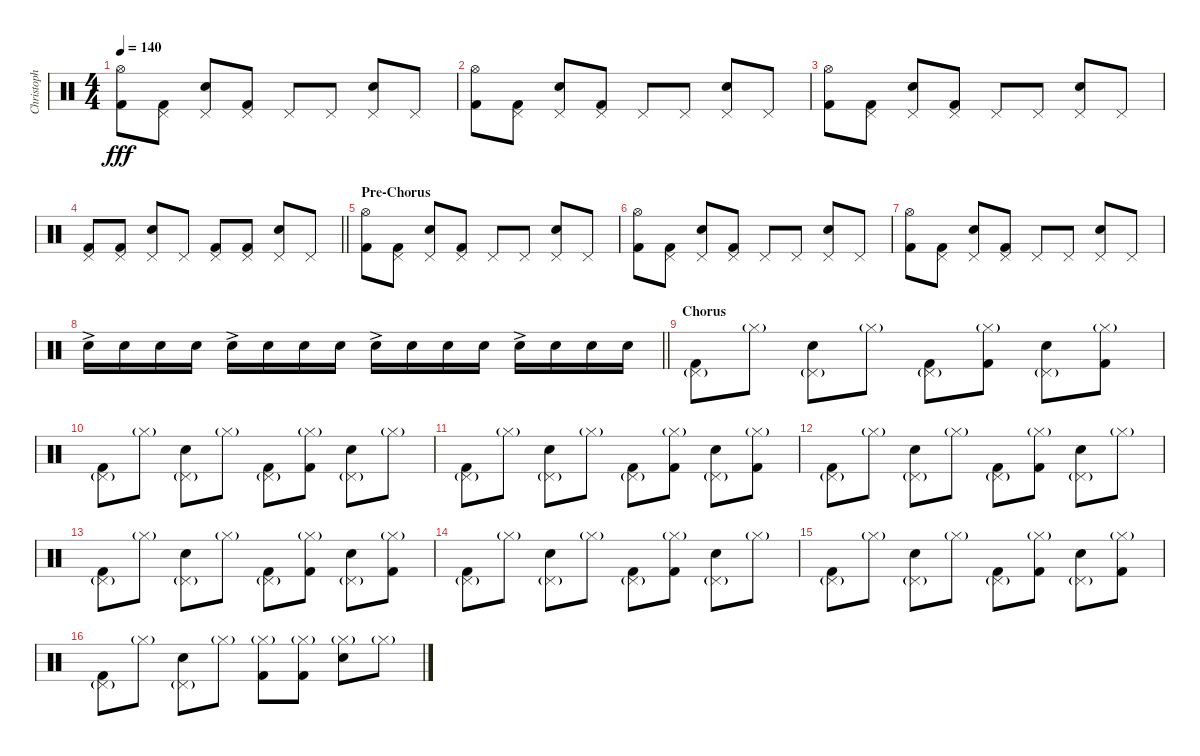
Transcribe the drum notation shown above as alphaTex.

\track ("Christoph" "Christoph") {instrument percussion}
\staff {score}
\articulation defaults
\ts (4 4)
\tempo 140
\clef neutral
\ks c
("Hi-Hat (open)" "Kick (hit) 2").8{dy fff} ("Pedal Hi-Hat (hit)" "Kick (hit) 2").8 ("Pedal Hi-Hat (hit)" "Electric Snare (hit)").8 ("Pedal Hi-Hat (hit)" "Kick (hit) 2").8 "Pedal Hi-Hat (hit)".8 "Pedal Hi-Hat (hit)".8 ("Pedal Hi-Hat (hit)" "Electric Snare (hit)").8 "Pedal Hi-Hat (hit)".8 |
("Hi-Hat (open)" "Kick (hit) 2").8 ("Pedal Hi-Hat (hit)" "Kick (hit) 2").8 ("Pedal Hi-Hat (hit)" "Electric Snare (hit)").8 ("Pedal Hi-Hat (hit)" "Kick (hit) 2").8 "Pedal Hi-Hat (hit)".8 "Pedal Hi-Hat (hit)".8 ("Pedal Hi-Hat (hit)" "Electric Snare (hit)").8 "Pedal Hi-Hat (hit)".8 |
("Hi-Hat (open)" "Kick (hit) 2").8 ("Pedal Hi-Hat (hit)" "Kick (hit) 2").8 ("Pedal Hi-Hat (hit)" "Electric Snare (hit)").8 ("Pedal Hi-Hat (hit)" "Kick (hit) 2").8 "Pedal Hi-Hat (hit)".8 "Pedal Hi-Hat (hit)".8 ("Pedal Hi-Hat (hit)" "Electric Snare (hit)").8 "Pedal Hi-Hat (hit)".8 |
\barLineRight lightlight
("Pedal Hi-Hat (hit)" "Kick (hit) 2").8 ("Pedal Hi-Hat (hit)" "Kick (hit) 2").8 ("Pedal Hi-Hat (hit)" "Electric Snare (hit)").8 "Pedal Hi-Hat (hit)".8 ("Pedal Hi-Hat (hit)" "Kick (hit) 2").8 ("Pedal Hi-Hat (hit)" "Kick (hit) 2").8 ("Pedal Hi-Hat (hit)" "Electric Snare (hit)").8 "Pedal Hi-Hat (hit)".8 |
\section ("" "Pre-Chorus")
("Hi-Hat (open)" "Kick (hit) 2").8 ("Pedal Hi-Hat (hit)" "Kick (hit) 2").8 ("Pedal Hi-Hat (hit)" "Electric Snare (hit)").8 ("Pedal Hi-Hat (hit)" "Kick (hit) 2").8 "Pedal Hi-Hat (hit)".8 "Pedal Hi-Hat (hit)".8 ("Pedal Hi-Hat (hit)" "Electric Snare (hit)").8 "Pedal Hi-Hat (hit)".8 |
("Hi-Hat (open)" "Kick (hit) 2").8 ("Pedal Hi-Hat (hit)" "Kick (hit) 2").8 ("Pedal Hi-Hat (hit)" "Electric Snare (hit)").8 ("Pedal Hi-Hat (hit)" "Kick (hit) 2").8 "Pedal Hi-Hat (hit)".8 "Pedal Hi-Hat (hit)".8 ("Pedal Hi-Hat (hit)" "Electric Snare (hit)").8 "Pedal Hi-Hat (hit)".8 |
("Hi-Hat (open)" "Kick (hit) 2").8 ("Pedal Hi-Hat (hit)" "Kick (hit) 2").8 ("Pedal Hi-Hat (hit)" "Electric Snare (hit)").8 ("Pedal Hi-Hat (hit)" "Kick (hit) 2").8 "Pedal Hi-Hat (hit)".8 "Pedal Hi-Hat (hit)".8 ("Pedal Hi-Hat (hit)" "Electric Snare (hit)").8 "Pedal Hi-Hat (hit)".8 |
\barLineRight lightlight "Electric Snare (hit)"{ac}.16 "Electric Snare (hit)".16 "Electric Snare (hit)".16 "Electric Snare (hit)".16 "Electric Snare (hit)"{ac}.16 "Electric Snare (hit)".16 "Electric Snare (hit)".16 "Electric Snare (hit)".16 "Electric Snare (hit)"{ac}.16 "Electric Snare (hit)".16 "Electric Snare (hit)".16 "Electric Snare (hit)".16 "Electric Snare (hit)"{ac}.16 "Electric Snare (hit)".16 "Electric Snare (hit)".16 "Electric Snare (hit)".16
|
\section ("" "Chorus")
("Pedal Hi-Hat (hit)"{g} "Kick (hit) 2").8 "Hi-Hat (closed)"{g}.8 ("Pedal Hi-Hat (hit)"{g} "Electric Snare (hit)").8 "Hi-Hat (closed)"{g}.8 ("Pedal Hi-Hat (hit)"{g} "Kick (hit) 2").8 ("Hi-Hat (closed)"{g} "Kick (hit) 2").8 ("Pedal Hi-Hat (hit)"{g} "Electric Snare (hit)").8 ("Hi-Hat (closed)"{g} "Kick (hit) 2").8 |
("Pedal Hi-Hat (hit)"{g} "Kick (hit) 2").8 "Hi-Hat (closed)"{g}.8 ("Pedal Hi-Hat (hit)"{g} "Electric Snare (hit)").8 "Hi-Hat (closed)"{g}.8 ("Pedal Hi-Hat (hit)"{g} "Kick (hit) 2").8 ("Hi-Hat (closed)"{g} "Kick (hit) 2").8 ("Pedal Hi-Hat (hit)"{g} "Electric Snare (hit)").8 "Hi-Hat (closed)"{g}.8 |
("Pedal Hi-Hat (hit)"{g} "Kick (hit) 2").8 "Hi-Hat (closed)"{g}.8 ("Pedal Hi-Hat (hit)"{g} "Electric Snare (hit)").8 "Hi-Hat (closed)"{g}.8 ("Pedal Hi-Hat (hit)"{g} "Kick (hit) 2").8 ("Hi-Hat (closed)"{g} "Kick (hit) 2").8 ("Pedal Hi-Hat (hit)"{g} "Electric Snare (hit)").8 ("Hi-Hat (closed)"{g} "Kick (hit) 2").8 |
("Pedal Hi-Hat (hit)"{g} "Kick (hit) 2").8 "Hi-Hat (closed)"{g}.8 ("Pedal Hi-Hat (hit)"{g} "Electric Snare (hit)").8 "Hi-Hat (closed)"{g}.8 ("Pedal Hi-Hat (hit)"{g} "Kick (hit) 2").8 ("Hi-Hat (closed)"{g} "Kick (hit) 2").8 ("Pedal Hi-Hat (hit)"{g} "Electric Snare (hit)").8 "Hi-Hat (closed)"{g}.8 |
("Pedal Hi-Hat (hit)"{g} "Kick (hit) 2").8 "Hi-Hat (closed)"{g}.8 ("Pedal Hi-Hat (hit)"{g} "Electric Snare (hit)").8 "Hi-Hat (closed)"{g}.8 ("Pedal Hi-Hat (hit)"{g} "Kick (hit) 2").8 ("Hi-Hat (closed)"{g} "Kick (hit) 2").8 ("Pedal Hi-Hat (hit)"{g} "Electric Snare (hit)").8 ("Hi-Hat (closed)"{g} "Kick (hit) 2").8 |
("Pedal Hi-Hat (hit)"{g} "Kick (hit) 2").8 "Hi-Hat (closed)"{g}.8 ("Pedal Hi-Hat (hit)"{g} "Electric Snare (hit)").8 "Hi-Hat (closed)"{g}.8 ("Pedal Hi-Hat (hit)"{g} "Kick (hit) 2").8 ("Hi-Hat (closed)"{g} "Kick (hit) 2").8 ("Pedal Hi-Hat (hit)"{g} "Electric Snare (hit)").8 "Hi-Hat (closed)"{g}.8 |
("Pedal Hi-Hat (hit)"{g} "Kick (hit) 2").8 "Hi-Hat (closed)"{g}.8 ("Pedal Hi-Hat (hit)"{g} "Electric Snare (hit)").8 "Hi-Hat (closed)"{g}.8 ("Pedal Hi-Hat (hit)"{g} "Kick (hit) 2").8 ("Hi-Hat (closed)"{g} "Kick (hit) 2").8 ("Pedal Hi-Hat (hit)"{g} "Electric Snare (hit)").8 ("Hi-Hat (closed)"{g} "Kick (hit) 2").8 |
("Pedal Hi-Hat (hit)"{g} "Kick (hit) 2").8 "Hi-Hat (closed)"{g}.8 ("Pedal Hi-Hat (hit)"{g} "Electric Snare (hit)").8 "Hi-Hat (closed)"{g}.8 ("Hi-Hat (closed)"{g} "Kick (hit) 2").8 ("Hi-Hat (closed)"{g} "Kick (hit) 2").8 ("Hi-Hat (closed)"{g} "Electric Snare (hit)").8 "Hi-Hat (closed)"{g}.8
